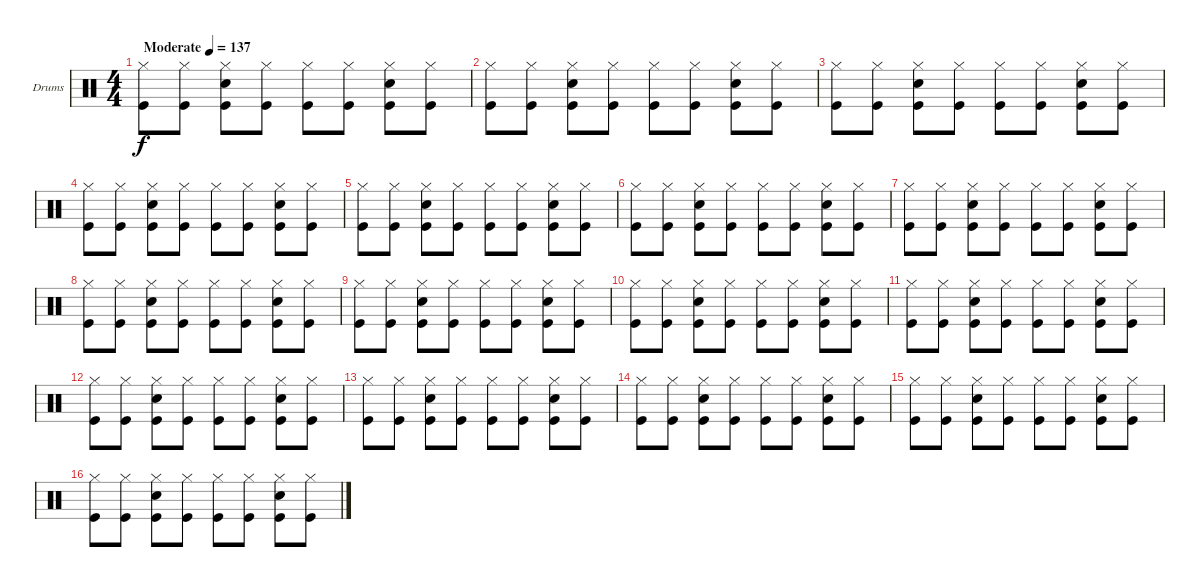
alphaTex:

\bracketExtendMode groupsimilarinstruments
\firstSystemTrackNameOrientation horizontal
\otherSystemsTrackNameOrientation horizontal
\track ("Peter Ulrich (Drums)" "Drums") {instrument percussion}
\staff {score}
\articulation defaults
\ts (4 4)
\beaming (8 2 2 2 2)
\tempo (137 "Moderate")
\clef neutral
\ks c
("Hi-Hat (closed)" "Kick (hit)").8{dy f} ("Hi-Hat (closed)" "Kick (hit)").8 ("Hi-Hat (closed)" "Snare (hit) 2" "Kick (hit)").8 ("Hi-Hat (closed)" "Kick (hit)").8 ("Hi-Hat (closed)" "Kick (hit)").8 ("Hi-Hat (closed)" "Kick (hit)").8 ("Hi-Hat (closed)" "Snare (hit) 2" "Kick (hit)").8 ("Hi-Hat (closed)" "Kick (hit)").8 |
("Hi-Hat (closed)" "Kick (hit)").8 ("Hi-Hat (closed)" "Kick (hit)").8 ("Hi-Hat (closed)" "Snare (hit) 2" "Kick (hit)").8 ("Hi-Hat (closed)" "Kick (hit)").8 ("Hi-Hat (closed)" "Kick (hit)").8 ("Hi-Hat (closed)" "Kick (hit)").8 ("Hi-Hat (closed)" "Snare (hit) 2" "Kick (hit)").8 ("Hi-Hat (closed)" "Kick (hit)").8 |
("Hi-Hat (closed)" "Kick (hit)").8 ("Hi-Hat (closed)" "Kick (hit)").8 ("Hi-Hat (closed)" "Snare (hit) 2" "Kick (hit)").8 ("Hi-Hat (closed)" "Kick (hit)").8 ("Hi-Hat (closed)" "Kick (hit)").8 ("Hi-Hat (closed)" "Kick (hit)").8 ("Hi-Hat (closed)" "Snare (hit) 2" "Kick (hit)").8 ("Hi-Hat (closed)" "Kick (hit)").8 |
("Hi-Hat (closed)" "Kick (hit)").8 ("Hi-Hat (closed)" "Kick (hit)").8 ("Hi-Hat (closed)" "Snare (hit) 2" "Kick (hit)").8 ("Hi-Hat (closed)" "Kick (hit)").8 ("Hi-Hat (closed)" "Kick (hit)").8 ("Hi-Hat (closed)" "Kick (hit)").8 ("Hi-Hat (closed)" "Snare (hit) 2" "Kick (hit)").8 ("Hi-Hat (closed)" "Kick (hit)").8 |
("Hi-Hat (closed)" "Kick (hit)").8 ("Hi-Hat (closed)" "Kick (hit)").8 ("Hi-Hat (closed)" "Snare (hit) 2" "Kick (hit)").8 ("Hi-Hat (closed)" "Kick (hit)").8 ("Hi-Hat (closed)" "Kick (hit)").8 ("Hi-Hat (closed)" "Kick (hit)").8 ("Hi-Hat (closed)" "Snare (hit) 2" "Kick (hit)").8 ("Hi-Hat (closed)" "Kick (hit)").8 |
("Hi-Hat (closed)" "Kick (hit)").8 ("Hi-Hat (closed)" "Kick (hit)").8 ("Hi-Hat (closed)" "Snare (hit) 2" "Kick (hit)").8 ("Hi-Hat (closed)" "Kick (hit)").8 ("Hi-Hat (closed)" "Kick (hit)").8 ("Hi-Hat (closed)" "Kick (hit)").8 ("Hi-Hat (closed)" "Snare (hit) 2" "Kick (hit)").8 ("Hi-Hat (closed)" "Kick (hit)").8 |
("Hi-Hat (closed)" "Kick (hit)").8 ("Hi-Hat (closed)" "Kick (hit)").8 ("Hi-Hat (closed)" "Snare (hit) 2" "Kick (hit)").8 ("Hi-Hat (closed)" "Kick (hit)").8 ("Hi-Hat (closed)" "Kick (hit)").8 ("Hi-Hat (closed)" "Kick (hit)").8 ("Hi-Hat (closed)" "Snare (hit) 2" "Kick (hit)").8 ("Hi-Hat (closed)" "Kick (hit)").8 |
("Hi-Hat (closed)" "Kick (hit)").8 ("Hi-Hat (closed)" "Kick (hit)").8 ("Hi-Hat (closed)" "Snare (hit) 2" "Kick (hit)").8 ("Hi-Hat (closed)" "Kick (hit)").8 ("Hi-Hat (closed)" "Kick (hit)").8 ("Hi-Hat (closed)" "Kick (hit)").8 ("Hi-Hat (closed)" "Snare (hit) 2" "Kick (hit)").8 ("Hi-Hat (closed)" "Kick (hit)").8 |
("Hi-Hat (closed)" "Kick (hit)").8 ("Hi-Hat (closed)" "Kick (hit)").8 ("Hi-Hat (closed)" "Snare (hit) 2" "Kick (hit)").8 ("Hi-Hat (closed)" "Kick (hit)").8 ("Hi-Hat (closed)" "Kick (hit)").8 ("Hi-Hat (closed)" "Kick (hit)").8 ("Hi-Hat (closed)" "Snare (hit) 2" "Kick (hit)").8 ("Hi-Hat (closed)" "Kick (hit)").8 |
("Hi-Hat (closed)" "Kick (hit)").8 ("Hi-Hat (closed)" "Kick (hit)").8 ("Hi-Hat (closed)" "Snare (hit) 2" "Kick (hit)").8 ("Hi-Hat (closed)" "Kick (hit)").8 ("Hi-Hat (closed)" "Kick (hit)").8 ("Hi-Hat (closed)" "Kick (hit)").8 ("Hi-Hat (closed)" "Snare (hit) 2" "Kick (hit)").8 ("Hi-Hat (closed)" "Kick (hit)").8 |
("Hi-Hat (closed)" "Kick (hit)").8 ("Hi-Hat (closed)" "Kick (hit)").8 ("Hi-Hat (closed)" "Snare (hit) 2" "Kick (hit)").8 ("Hi-Hat (closed)" "Kick (hit)").8 ("Hi-Hat (closed)" "Kick (hit)").8 ("Hi-Hat (closed)" "Kick (hit)").8 ("Hi-Hat (closed)" "Snare (hit) 2" "Kick (hit)").8 ("Hi-Hat (closed)" "Kick (hit)").8 |
("Hi-Hat (closed)" "Kick (hit)").8 ("Hi-Hat (closed)" "Kick (hit)").8 ("Hi-Hat (closed)" "Snare (hit) 2" "Kick (hit)").8 ("Hi-Hat (closed)" "Kick (hit)").8 ("Hi-Hat (closed)" "Kick (hit)").8 ("Hi-Hat (closed)" "Kick (hit)").8 ("Hi-Hat (closed)" "Snare (hit) 2" "Kick (hit)").8 ("Hi-Hat (closed)" "Kick (hit)").8 |
("Hi-Hat (closed)" "Kick (hit)").8 ("Hi-Hat (closed)" "Kick (hit)").8 ("Hi-Hat (closed)" "Snare (hit) 2" "Kick (hit)").8 ("Hi-Hat (closed)" "Kick (hit)").8 ("Hi-Hat (closed)" "Kick (hit)").8 ("Hi-Hat (closed)" "Kick (hit)").8 ("Hi-Hat (closed)" "Snare (hit) 2" "Kick (hit)").8 ("Hi-Hat (closed)" "Kick (hit)").8 |
("Hi-Hat (closed)" "Kick (hit)").8 ("Hi-Hat (closed)" "Kick (hit)").8 ("Hi-Hat (closed)" "Snare (hit) 2" "Kick (hit)").8 ("Hi-Hat (closed)" "Kick (hit)").8 ("Hi-Hat (closed)" "Kick (hit)").8 ("Hi-Hat (closed)" "Kick (hit)").8 ("Hi-Hat (closed)" "Snare (hit) 2" "Kick (hit)").8 ("Hi-Hat (closed)" "Kick (hit)").8 |
("Hi-Hat (closed)" "Kick (hit)").8 ("Hi-Hat (closed)" "Kick (hit)").8 ("Hi-Hat (closed)" "Snare (hit) 2" "Kick (hit)").8 ("Hi-Hat (closed)" "Kick (hit)").8 ("Hi-Hat (closed)" "Kick (hit)").8 ("Hi-Hat (closed)" "Kick (hit)").8 ("Hi-Hat (closed)" "Snare (hit) 2" "Kick (hit)").8 ("Hi-Hat (closed)" "Kick (hit)").8 |
("Hi-Hat (closed)" "Kick (hit)").8 ("Hi-Hat (closed)" "Kick (hit)").8 ("Hi-Hat (closed)" "Snare (hit) 2" "Kick (hit)").8 ("Hi-Hat (closed)" "Kick (hit)").8 ("Hi-Hat (closed)" "Kick (hit)").8 ("Hi-Hat (closed)" "Kick (hit)").8 ("Hi-Hat (closed)" "Snare (hit) 2" "Kick (hit)").8 ("Hi-Hat (closed)" "Kick (hit)").8
